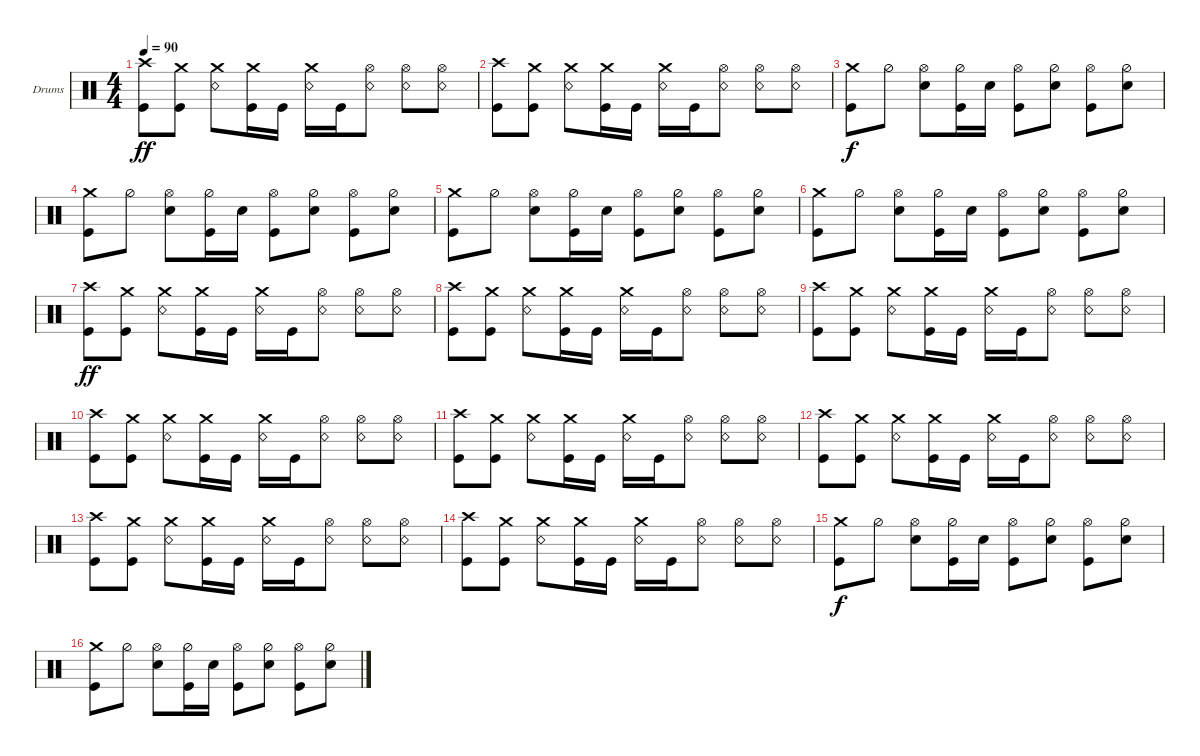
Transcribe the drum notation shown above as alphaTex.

\defaultSystemsLayout 4
\bracketExtendMode groupsimilarinstruments
\firstSystemTrackNameOrientation horizontal
\otherSystemsTrackNameOrientation horizontal
\track ("Jeremiah Green" "Drums") {instrument percussion}
\staff {score}
\articulation defaults
\ts (4 4)
\tempo 90
\clef neutral
\scale
0.333333
\ks c
("Kick (hit)" "Crash high (hit)").8{dy ff} ("Crash medium (hit)" "Kick (hit)").8 ("Snare (rim shot)" "Crash medium (hit)").8 ("Kick (hit)" "Crash medium (hit)").16 "Kick (hit)".16 ("Snare (rim shot)" "Crash medium (hit)").16 "Kick (hit)".16 ("Snare (rim shot)" "Hi-Hat (open)").8 ("Hi-Hat (open)" "Snare (rim shot)").8 ("Snare (rim shot)" "Hi-Hat (open)").8 |
\scale
0.333333 ("Kick (hit)" "Crash high (hit)").8 ("Crash medium (hit)" "Kick (hit)").8 ("Snare (rim shot)" "Crash medium (hit)").8 ("Kick (hit)" "Crash medium (hit)").16 "Kick (hit)".16 ("Snare (rim shot)" "Crash medium (hit)").16 "Kick (hit)".16 ("Snare (rim shot)" "Hi-Hat (open)").8 ("Hi-Hat (open)" "Snare (rim shot)").8 ("Snare (rim shot)" "Hi-Hat (open)").8 |
\scale
0.333333 ("Kick (hit)" "Crash medium (hit)").8{dy f} "Hi-Hat (half)".8 ("Hi-Hat (open)" "Snare (hit) 2").8 ("Kick (hit)" "Hi-Hat (half)").16 "Snare (hit) 2".16 ("Kick (hit)" "Hi-Hat (open)").8 ("Hi-Hat (half)" "Snare (hit) 2").8 ("Kick (hit)" "Hi-Hat (open)").8 ("Hi-Hat (half)" "Snare (hit) 2").8 |
\scale
0.333333 ("Kick (hit)" "Crash medium (hit)").8 "Hi-Hat (half)".8 ("Hi-Hat (open)" "Snare (hit) 2").8 ("Kick (hit)" "Hi-Hat (half)").16 "Snare (hit) 2".16 ("Kick (hit)" "Hi-Hat (open)").8 ("Hi-Hat (half)" "Snare (hit) 2").8 ("Kick (hit)" "Hi-Hat (open)").8 ("Hi-Hat (half)" "Snare (hit) 2").8 |
\scale
0.333333 ("Kick (hit)" "Crash medium (hit)").8 "Hi-Hat (half)".8 ("Hi-Hat (open)" "Snare (hit) 2").8 ("Kick (hit)" "Hi-Hat (half)").16 "Snare (hit) 2".16 ("Kick (hit)" "Hi-Hat (open)").8 ("Hi-Hat (half)" "Snare (hit) 2").8 ("Kick (hit)" "Hi-Hat (open)").8 ("Hi-Hat (half)" "Snare (hit) 2").8 |
\scale
0.333333 ("Kick (hit)" "Crash medium (hit)").8 "Hi-Hat (half)".8 ("Hi-Hat (open)" "Snare (hit) 2").8 ("Kick (hit)" "Hi-Hat (half)").16 "Snare (hit) 2".16 ("Kick (hit)" "Hi-Hat (open)").8 ("Hi-Hat (half)" "Snare (hit) 2").8 ("Kick (hit)" "Hi-Hat (open)").8 ("Hi-Hat (half)" "Snare (hit) 2").8 |
\scale
0.333333 ("Kick (hit)" "Crash high (hit)").8{dy ff} ("Crash medium (hit)" "Kick (hit)").8 ("Snare (rim shot)" "Crash medium (hit)").8 ("Kick (hit)" "Crash medium (hit)").16 "Kick (hit)".16 ("Snare (rim shot)" "Crash medium (hit)").16 "Kick (hit)".16 ("Snare (rim shot)" "Hi-Hat (open)").8 ("Hi-Hat (open)" "Snare (rim shot)").8 ("Snare (rim shot)" "Hi-Hat (open)").8 |
\scale
0.333333 ("Kick (hit)" "Crash high (hit)").8 ("Crash medium (hit)" "Kick (hit)").8 ("Snare (rim shot)" "Crash medium (hit)").8 ("Kick (hit)" "Crash medium (hit)").16 "Kick (hit)".16 ("Snare (rim shot)" "Crash medium (hit)").16 "Kick (hit)".16 ("Snare (rim shot)" "Hi-Hat (open)").8 ("Hi-Hat (open)" "Snare (rim shot)").8 ("Snare (rim shot)" "Hi-Hat (open)").8 |
\scale
0.333333 ("Kick (hit)" "Crash high (hit)").8 ("Crash medium (hit)" "Kick (hit)").8 ("Snare (rim shot)" "Crash medium (hit)").8 ("Kick (hit)" "Crash medium (hit)").16 "Kick (hit)".16 ("Snare (rim shot)" "Crash medium (hit)").16 "Kick (hit)".16 ("Snare (rim shot)" "Hi-Hat (open)").8 ("Hi-Hat (open)" "Snare (rim shot)").8 ("Snare (rim shot)" "Hi-Hat (open)").8 |
\scale
0.333333 ("Kick (hit)" "Crash high (hit)").8 ("Crash medium (hit)" "Kick (hit)").8 ("Snare (rim shot)" "Crash medium (hit)").8 ("Kick (hit)" "Crash medium (hit)").16 "Kick (hit)".16 ("Snare (rim shot)" "Crash medium (hit)").16 "Kick (hit)".16 ("Snare (rim shot)" "Hi-Hat (open)").8 ("Hi-Hat (open)" "Snare (rim shot)").8 ("Snare (rim shot)" "Hi-Hat (open)").8 |
\scale
0.333333 ("Kick (hit)" "Crash high (hit)").8 ("Crash medium (hit)" "Kick (hit)").8 ("Snare (rim shot)" "Crash medium (hit)").8 ("Kick (hit)" "Crash medium (hit)").16 "Kick (hit)".16 ("Snare (rim shot)" "Crash medium (hit)").16 "Kick (hit)".16 ("Snare (rim shot)" "Hi-Hat (open)").8 ("Hi-Hat (open)" "Snare (rim shot)").8 ("Snare (rim shot)" "Hi-Hat (open)").8 |
\scale
0.333333 ("Kick (hit)" "Crash high (hit)").8 ("Crash medium (hit)" "Kick (hit)").8 ("Snare (rim shot)" "Crash medium (hit)").8 ("Kick (hit)" "Crash medium (hit)").16 "Kick (hit)".16 ("Snare (rim shot)" "Crash medium (hit)").16 "Kick (hit)".16 ("Snare (rim shot)" "Hi-Hat (open)").8 ("Hi-Hat (open)" "Snare (rim shot)").8 ("Snare (rim shot)" "Hi-Hat (open)").8 |
\scale
0.333333 ("Kick (hit)" "Crash high (hit)").8 ("Crash medium (hit)" "Kick (hit)").8 ("Snare (rim shot)" "Crash medium (hit)").8 ("Kick (hit)" "Crash medium (hit)").16 "Kick (hit)".16 ("Snare (rim shot)" "Crash medium (hit)").16 "Kick (hit)".16 ("Snare (rim shot)" "Hi-Hat (open)").8 ("Hi-Hat (open)" "Snare (rim shot)").8 ("Snare (rim shot)" "Hi-Hat (open)").8 |
\scale
0.333333 ("Kick (hit)" "Crash high (hit)").8 ("Crash medium (hit)" "Kick (hit)").8 ("Snare (rim shot)" "Crash medium (hit)").8 ("Kick (hit)" "Crash medium (hit)").16 "Kick (hit)".16 ("Snare (rim shot)" "Crash medium (hit)").16 "Kick (hit)".16 ("Snare (rim shot)" "Hi-Hat (open)").8 ("Hi-Hat (open)" "Snare (rim shot)").8 ("Snare (rim shot)" "Hi-Hat (open)").8 |
\scale
0.333333 ("Kick (hit)" "Crash medium (hit)").8{dy f} "Hi-Hat (half)".8 ("Hi-Hat (open)" "Snare (hit) 2").8 ("Kick (hit)" "Hi-Hat (half)").16 "Snare (hit) 2".16 ("Kick (hit)" "Hi-Hat (open)").8 ("Hi-Hat (half)" "Snare (hit) 2").8 ("Kick (hit)" "Hi-Hat (open)").8 ("Hi-Hat (half)" "Snare (hit) 2").8 |
\scale
0.333333 ("Kick (hit)" "Crash medium (hit)").8 "Hi-Hat (half)".8 ("Hi-Hat (open)" "Snare (hit) 2").8 ("Kick (hit)" "Hi-Hat (half)").16 "Snare (hit) 2".16 ("Kick (hit)" "Hi-Hat (open)").8 ("Hi-Hat (half)" "Snare (hit) 2").8 ("Kick (hit)" "Hi-Hat (open)").8 ("Hi-Hat (half)" "Snare (hit) 2").8
